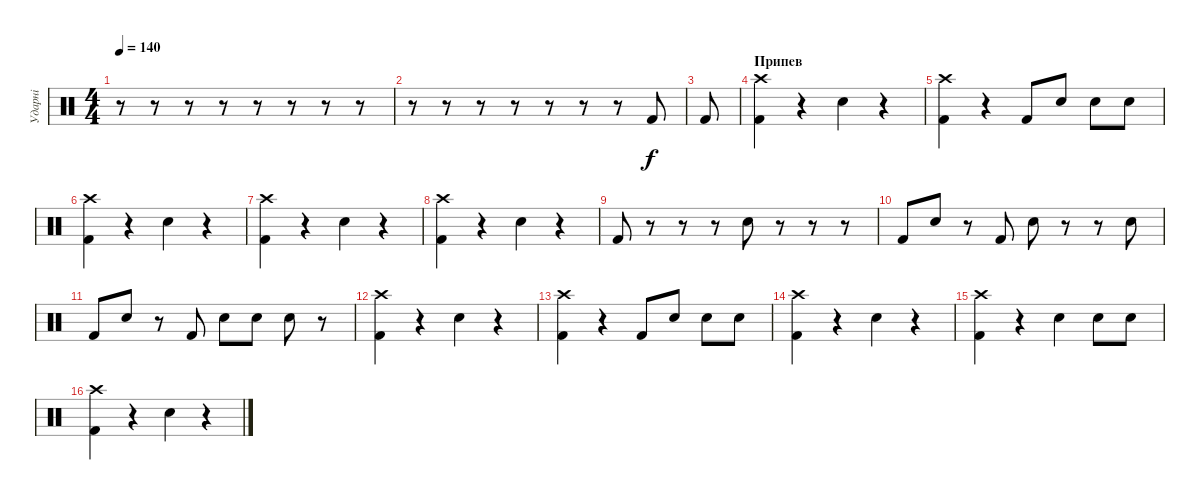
\track ("Ударні" "Ударні") {instrument percussion}
\staff {score}
\articulation defaults
\ts (4 4)
\tempo 140
\clef neutral
\ks c
r.8{dy f} r.8 r.8 r.8 r.8 r.8 r.8 r.8 |
r.8 r.8 r.8 r.8 r.8 r.8 r.8 "Kick (hit) 2".8 |
"Kick (hit) 2".8 |
\section ("" "Припев")
("Kick (hit) 2" "Crash high (hit)").4 r.4 "Snare (hit) 2".4 r.4 |
("Kick (hit) 2" "Crash high (hit)").4 r.4 "Kick (hit) 2".8 "Snare (hit) 2".8 "Snare (hit) 2".8 "Snare (hit) 2".8 |
("Kick (hit) 2" "Crash high (hit)").4 r.4 "Snare (hit) 2".4 r.4 |
("Kick (hit) 2" "Crash high (hit)").4 r.4 "Snare (hit) 2".4 r.4 |
("Kick (hit) 2" "Crash high (hit)").4 r.4 "Snare (hit) 2".4 r.4 |
"Kick (hit) 2".8 r.8 r.8 r.8 "Snare (hit) 2".8 r.8 r.8 r.8 |
"Kick (hit) 2".8 "Snare (hit) 2".8 r.8 "Kick (hit) 2".8 "Snare (hit) 2".8 r.8 r.8 "Snare (hit) 2".8 |
"Kick (hit) 2".8 "Snare (hit) 2".8 r.8 "Kick (hit) 2".8 "Snare (hit) 2".8 "Snare (hit) 2".8 "Snare (hit) 2".8 r.8 |
("Kick (hit) 2" "Crash high (hit)").4 r.4 "Snare (hit) 2".4 r.4 |
("Kick (hit) 2" "Crash high (hit)").4 r.4 "Kick (hit) 2".8 "Snare (hit) 2".8 "Snare (hit) 2".8 "Snare (hit) 2".8 |
("Kick (hit) 2" "Crash high (hit)").4 r.4 "Snare (hit) 2".4 r.4 |
("Kick (hit) 2" "Crash high (hit)").4 r.4 "Snare (hit) 2".4 "Snare (hit) 2".8 "Snare (hit) 2".8 |
("Kick (hit) 2" "Crash high (hit)").4 r.4 "Snare (hit) 2".4 r.4
